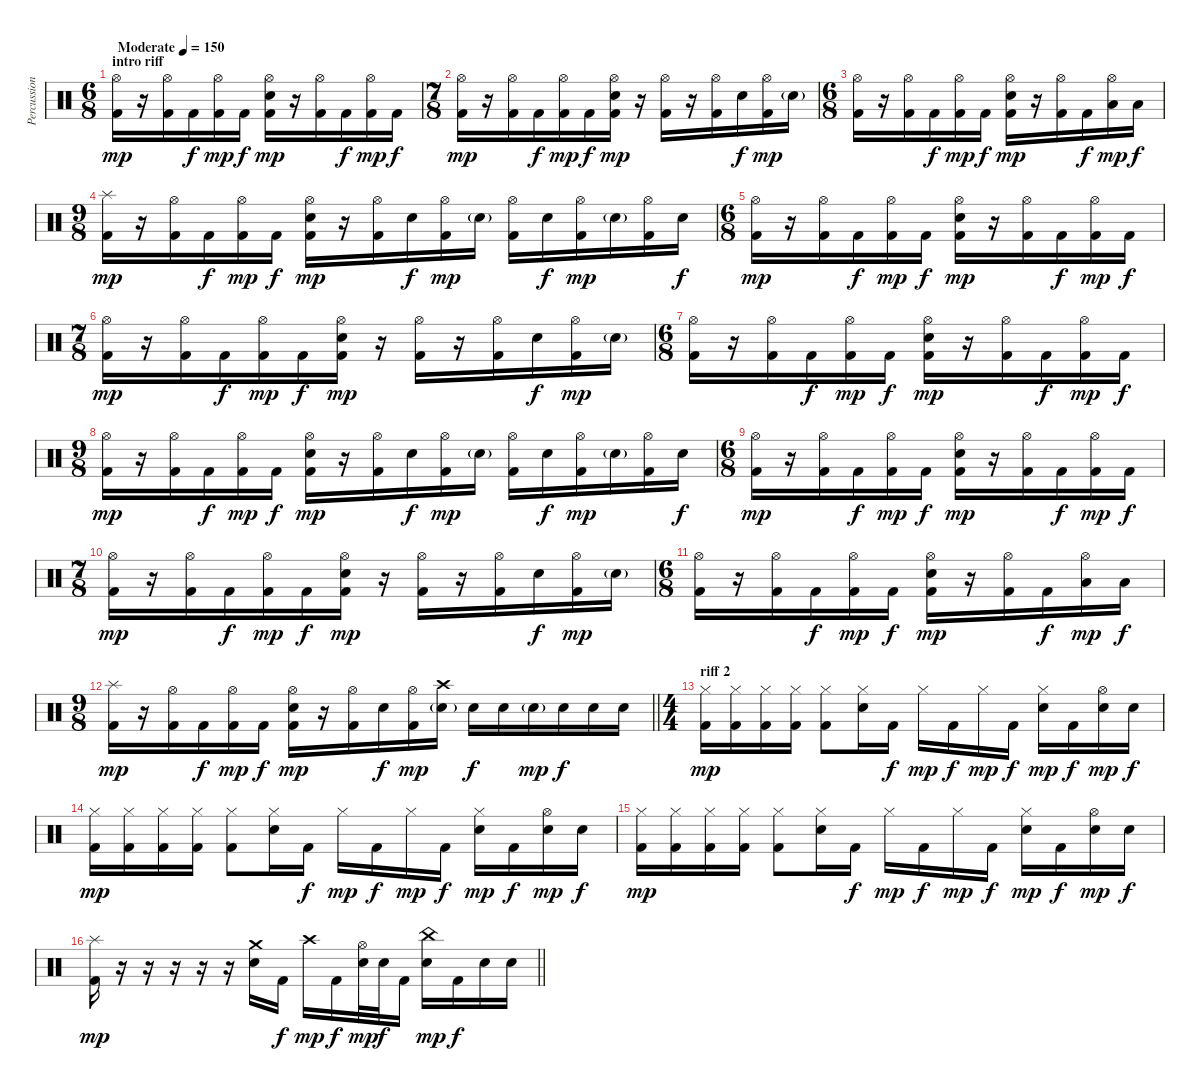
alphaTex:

\track ("Percussion" "Percussion") {instrument percussion}
\staff {score}
\articulation defaults
\ts (6 8)
\section ("" "intro riff")
\tempo (150 "Moderate")
\clef neutral
\ks c
("Hi-Hat (open)" "Kick (hit) 2").16{dy mp} r.16 ("Hi-Hat (open)" "Kick (hit) 2").16 "Kick (hit) 2".16{dy f} ("Hi-Hat (open)" "Kick (hit) 2").16{dy mp} "Kick (hit) 2".16{dy f} ("Hi-Hat (open)" "Electric Snare (hit)" "Kick (hit) 2").16{dy mp} r.16 ("Hi-Hat (open)" "Kick (hit) 2").16 "Kick (hit) 2".16{dy f} ("Hi-Hat (open)" "Kick (hit) 2").16{dy mp} "Kick (hit) 2".16{dy f} |
\ts (7 8)
("Hi-Hat (open)" "Kick (hit) 2").16{dy mp} r.16 ("Hi-Hat (open)" "Kick (hit) 2").16 "Kick (hit) 2".16{dy f} ("Hi-Hat (open)" "Kick (hit) 2").16{dy mp} "Kick (hit) 2".16{dy f} ("Hi-Hat (open)" "Electric Snare (hit)" "Kick (hit) 2").16{dy mp} r.16 ("Hi-Hat (open)" "Kick (hit) 2").16 r.16 ("Hi-Hat (open)" "Kick (hit) 2").16 "Electric Snare (hit)".16{dy f} ("Hi-Hat (open)" "Kick (hit) 2").16{dy mp} "Electric Snare (hit)"{g}.16 |
\ts (6 8)
("Hi-Hat (open)" "Kick (hit) 2").16 r.16 ("Hi-Hat (open)" "Kick (hit) 2").16 "Kick (hit) 2".16{dy f} ("Hi-Hat (open)" "Kick (hit) 2").16{dy mp} "Kick (hit) 2".16{dy f} ("Hi-Hat (open)" "Electric Snare (hit)" "Kick (hit) 2").16{dy mp} r.16 ("Hi-Hat (open)" "Kick (hit) 2").16 "Kick (hit) 2".16{dy f} ("Hi-Hat (open)" "Low Tom (hit)").16{dy mp} "Low Tom (hit)".16{dy f} |
\ts (9 8)
("Splash (hit)" "Kick (hit) 2").16{dy mp} r.16 ("Hi-Hat (open)" "Kick (hit) 2").16 "Kick (hit) 2".16{dy f} ("Hi-Hat (open)" "Kick (hit) 2").16{dy mp} "Kick (hit) 2".16{dy f} ("Hi-Hat (open)" "Electric Snare (hit)" "Kick (hit) 2").16{dy mp} r.16 ("Hi-Hat (open)" "Kick (hit) 2").16 "Electric Snare (hit)".16{dy f} ("Hi-Hat (open)" "Kick (hit) 2").16{dy mp} "Electric Snare (hit)"{g}.16 ("Hi-Hat (open)" "Kick (hit) 2").16 "Electric Snare (hit)".16{dy f} ("Hi-Hat (open)" "Kick (hit) 2").16{dy mp} "Electric Snare (hit)"{g}.16 ("Hi-Hat (open)" "Kick (hit) 2").16 "Electric Snare (hit)".16{dy f} |
\ts (6 8)
("Hi-Hat (open)" "Kick (hit) 2").16{dy mp} r.16 ("Hi-Hat (open)" "Kick (hit) 2").16 "Kick (hit) 2".16{dy f} ("Hi-Hat (open)" "Kick (hit) 2").16{dy mp} "Kick (hit) 2".16{dy f} ("Hi-Hat (open)" "Electric Snare (hit)" "Kick (hit) 2").16{dy mp} r.16 ("Hi-Hat (open)" "Kick (hit) 2").16 "Kick (hit) 2".16{dy f} ("Hi-Hat (open)" "Kick (hit) 2").16{dy mp} "Kick (hit) 2".16{dy f} |
\ts (7 8)
("Hi-Hat (open)" "Kick (hit) 2").16{dy mp} r.16 ("Hi-Hat (open)" "Kick (hit) 2").16 "Kick (hit) 2".16{dy f} ("Hi-Hat (open)" "Kick (hit) 2").16{dy mp} "Kick (hit) 2".16{dy f} ("Hi-Hat (open)" "Electric Snare (hit)" "Kick (hit) 2").16{dy mp} r.16 ("Hi-Hat (open)" "Kick (hit) 2").16 r.16 ("Hi-Hat (open)" "Kick (hit) 2").16 "Electric Snare (hit)".16{dy f} ("Hi-Hat (open)" "Kick (hit) 2").16{dy mp} "Electric Snare (hit)"{g}.16 |
\ts (6 8)
("Hi-Hat (open)" "Kick (hit) 2").16 r.16 ("Hi-Hat (open)" "Kick (hit) 2").16 "Kick (hit) 2".16{dy f} ("Hi-Hat (open)" "Kick (hit) 2").16{dy mp} "Kick (hit) 2".16{dy f} ("Hi-Hat (open)" "Electric Snare (hit)" "Kick (hit) 2").16{dy mp} r.16 ("Hi-Hat (open)" "Kick (hit) 2").16 "Kick (hit) 2".16{dy f} ("Hi-Hat (open)" "Kick (hit) 2").16{dy mp} "Kick (hit) 2".16{dy f} |
\ts (9 8)
("Hi-Hat (open)" "Kick (hit) 2").16{dy mp} r.16 ("Hi-Hat (open)" "Kick (hit) 2").16 "Kick (hit) 2".16{dy f} ("Hi-Hat (open)" "Kick (hit) 2").16{dy mp} "Kick (hit) 2".16{dy f} ("Hi-Hat (open)" "Electric Snare (hit)" "Kick (hit) 2").16{dy mp} r.16 ("Hi-Hat (open)" "Kick (hit) 2").16 "Electric Snare (hit)".16{dy f} ("Hi-Hat (open)" "Kick (hit) 2").16{dy mp} "Electric Snare (hit)"{g}.16 ("Hi-Hat (open)" "Kick (hit) 2").16 "Electric Snare (hit)".16{dy f} ("Hi-Hat (open)" "Kick (hit) 2").16{dy mp} "Electric Snare (hit)"{g}.16 ("Hi-Hat (open)" "Kick (hit) 2").16 "Electric Snare (hit)".16{dy f} |
\ts (6 8)
("Hi-Hat (open)" "Kick (hit) 2").16{dy mp} r.16 ("Hi-Hat (open)" "Kick (hit) 2").16 "Kick (hit) 2".16{dy f} ("Hi-Hat (open)" "Kick (hit) 2").16{dy mp} "Kick (hit) 2".16{dy f} ("Hi-Hat (open)" "Electric Snare (hit)" "Kick (hit) 2").16{dy mp} r.16 ("Hi-Hat (open)" "Kick (hit) 2").16 "Kick (hit) 2".16{dy f} ("Hi-Hat (open)" "Kick (hit) 2").16{dy mp} "Kick (hit) 2".16{dy f} |
\ts (7 8)
("Hi-Hat (open)" "Kick (hit) 2").16{dy mp} r.16 ("Hi-Hat (open)" "Kick (hit) 2").16 "Kick (hit) 2".16{dy f} ("Hi-Hat (open)" "Kick (hit) 2").16{dy mp} "Kick (hit) 2".16{dy f} ("Hi-Hat (open)" "Electric Snare (hit)" "Kick (hit) 2").16{dy mp} r.16 ("Hi-Hat (open)" "Kick (hit) 2").16 r.16 ("Hi-Hat (open)" "Kick (hit) 2").16 "Electric Snare (hit)".16{dy f} ("Hi-Hat (open)" "Kick (hit) 2").16{dy mp} "Electric Snare (hit)"{g}.16 |
\ts (6 8)
("Hi-Hat (open)" "Kick (hit) 2").16 r.16 ("Hi-Hat (open)" "Kick (hit) 2").16 "Kick (hit) 2".16{dy f} ("Hi-Hat (open)" "Kick (hit) 2").16{dy mp} "Kick (hit) 2".16{dy f} ("Hi-Hat (open)" "Electric Snare (hit)" "Kick (hit) 2").16{dy mp} r.16 ("Hi-Hat (open)" "Kick (hit) 2").16 "Kick (hit) 2".16{dy f} ("Hi-Hat (open)" "Low Tom (hit)").16{dy mp} "Low Tom (hit)".16{dy f} |
\ts (9 8)
\barLineRight lightlight
("Splash (hit)" "Kick (hit) 2").16{dy mp} r.16 ("Hi-Hat (open)" "Kick (hit) 2").16 "Kick (hit) 2".16{dy f} ("Hi-Hat (open)" "Kick (hit) 2").16{dy mp} "Kick (hit) 2".16{dy f} ("Hi-Hat (open)" "Electric Snare (hit)" "Kick (hit) 2").16{dy mp} r.16 ("Hi-Hat (open)" "Kick (hit) 2").16 "Electric Snare (hit)".16{dy f} ("Hi-Hat (open)" "Kick (hit) 2").16{dy mp} ("Crash high (hit)" "Electric Snare (hit)"{g}).16 "Electric Snare (hit)".16{dy f} "Electric Snare (hit)".16 "Electric Snare (hit)"{g}.16{dy mp} "Electric Snare (hit)".16{dy f} "Electric Snare (hit)".16 "Electric Snare (hit)".16 |
\ts (4 4)
\section ("" "riff 2")
("Hi-Hat (closed)" "Kick (hit) 2").16{dy mp} ("Hi-Hat (closed)" "Kick (hit) 2").16 ("Hi-Hat (closed)" "Kick (hit) 2").16 ("Hi-Hat (closed)" "Kick (hit) 2").16 ("Hi-Hat (closed)" "Kick (hit) 2").8 ("Hi-Hat (closed)" "Electric Snare (hit)").16 "Kick (hit) 2".16{dy f} "Hi-Hat (closed)".16{dy mp} "Kick (hit) 2".16{dy f} "Hi-Hat (closed)".16{dy mp} "Kick (hit) 2".16{dy f} ("Hi-Hat (closed)" "Electric Snare (hit)").16{dy mp} "Kick (hit) 2".16{dy f} ("Hi-Hat (open)" "Electric Snare (hit)").16{dy mp} "Electric Snare (hit)".16{dy f} |
("Hi-Hat (closed)" "Kick (hit) 2").16{dy mp} ("Hi-Hat (closed)" "Kick (hit) 2").16 ("Hi-Hat (closed)" "Kick (hit) 2").16 ("Hi-Hat (closed)" "Kick (hit) 2").16 ("Hi-Hat (closed)" "Kick (hit) 2").8 ("Hi-Hat (closed)" "Electric Snare (hit)").16 "Kick (hit) 2".16{dy f} "Hi-Hat (closed)".16{dy mp} "Kick (hit) 2".16{dy f} "Hi-Hat (closed)".16{dy mp} "Kick (hit) 2".16{dy f} ("Hi-Hat (closed)" "Electric Snare (hit)").16{dy mp} "Kick (hit) 2".16{dy f} ("Hi-Hat (open)" "Electric Snare (hit)").16{dy mp} "Electric Snare (hit)".16{dy f} |
("Hi-Hat (closed)" "Kick (hit) 2").16{dy mp} ("Hi-Hat (closed)" "Kick (hit) 2").16 ("Hi-Hat (closed)" "Kick (hit) 2").16 ("Hi-Hat (closed)" "Kick (hit) 2").16 ("Hi-Hat (closed)" "Kick (hit) 2").8 ("Hi-Hat (closed)" "Electric Snare (hit)").16 "Kick (hit) 2".16{dy f} "Hi-Hat (closed)".16{dy mp} "Kick (hit) 2".16{dy f} "Hi-Hat (closed)".16{dy mp} "Kick (hit) 2".16{dy f} ("Hi-Hat (closed)" "Electric Snare (hit)").16{dy mp} "Kick (hit) 2".16{dy f} ("Hi-Hat (open)" "Electric Snare (hit)").16{dy mp} "Electric Snare (hit)".16{dy f} |
\barLineRight lightlight
("Splash (hit)" "Kick (hit) 2").16{dy mp} r.16 r.16 r.16 r.16 r.16 ("Crash medium (hit)" "Electric Snare (hit)").16 "Kick (hit) 2".16{dy f} "Crash high (hit)".16{dy mp} "Kick (hit) 2".16{dy f} ("Hi-Hat (open)" "Electric Snare (hit)").32{dy mp} "Electric Snare (hit)".32{dy f} "Kick (hit) 2".16 ("China (hit)" "Electric Snare (hit)").16{dy mp} "Kick (hit) 2".16{dy f} "Electric Snare (hit)".16 "Electric Snare (hit)".16
